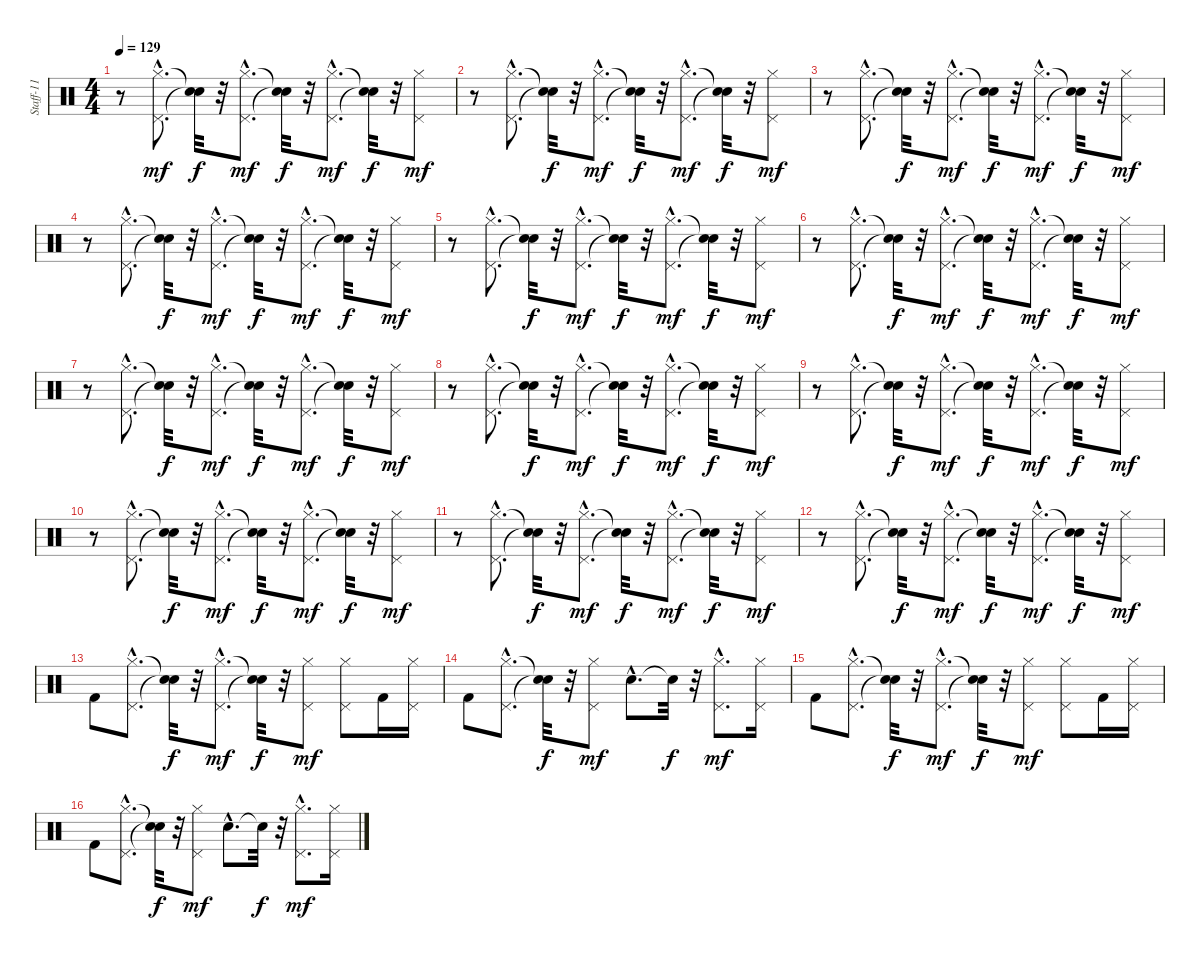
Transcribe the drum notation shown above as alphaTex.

\track ("Staff-11" "Staff-11") {instrument percussion}
\staff {score}
\articulation defaults
\ts (4 4)
\tempo 129
\clef neutral
\ks c
r.8{dy mf} ("Hi-Hat (closed)"{hac} "Pedal Hi-Hat (hit)"{hac}).8{d} ("Snare (hit)"{t} "Snare (hit)"{t}).32{dy f} r.32 ("Hi-Hat (closed)"{hac} "Pedal Hi-Hat (hit)"{hac}).8{d dy mf} ("Snare (hit)"{t} "Snare (hit)"{t}).32{dy f} r.32 ("Hi-Hat (closed)"{hac} "Pedal Hi-Hat (hit)"{hac}).8{d dy mf} ("Snare (hit)"{t} "Snare (hit)"{t}).32{dy f} r.32 ("Hi-Hat (closed)" "Pedal Hi-Hat (hit)").8{dy mf} |
r.8 ("Hi-Hat (closed)"{hac} "Pedal Hi-Hat (hit)"{hac}).8{d} ("Snare (hit)"{t} "Snare (hit)"{t}).32{dy f} r.32 ("Hi-Hat (closed)"{hac} "Pedal Hi-Hat (hit)"{hac}).8{d dy mf} ("Snare (hit)"{t} "Snare (hit)"{t}).32{dy f} r.32 ("Hi-Hat (closed)"{hac} "Pedal Hi-Hat (hit)"{hac}).8{d dy mf} ("Snare (hit)"{t} "Snare (hit)"{t}).32{dy f} r.32 ("Hi-Hat (closed)" "Pedal Hi-Hat (hit)").8{dy mf} |
r.8 ("Hi-Hat (closed)"{hac} "Pedal Hi-Hat (hit)"{hac}).8{d} ("Snare (hit)"{t} "Snare (hit)"{t}).32{dy f} r.32 ("Hi-Hat (closed)"{hac} "Pedal Hi-Hat (hit)"{hac}).8{d dy mf} ("Snare (hit)"{t} "Snare (hit)"{t}).32{dy f} r.32 ("Hi-Hat (closed)"{hac} "Pedal Hi-Hat (hit)"{hac}).8{d dy mf} ("Snare (hit)"{t} "Snare (hit)"{t}).32{dy f} r.32 ("Hi-Hat (closed)" "Pedal Hi-Hat (hit)").8{dy mf} |
r.8 ("Hi-Hat (closed)"{hac} "Pedal Hi-Hat (hit)"{hac}).8{d} ("Snare (hit)"{t} "Snare (hit)"{t}).32{dy f} r.32 ("Hi-Hat (closed)"{hac} "Pedal Hi-Hat (hit)"{hac}).8{d dy mf} ("Snare (hit)"{t} "Snare (hit)"{t}).32{dy f} r.32 ("Hi-Hat (closed)"{hac} "Pedal Hi-Hat (hit)"{hac}).8{d dy mf} ("Snare (hit)"{t} "Snare (hit)"{t}).32{dy f} r.32 ("Hi-Hat (closed)" "Pedal Hi-Hat (hit)").8{dy mf} |
r.8 ("Hi-Hat (closed)"{hac} "Pedal Hi-Hat (hit)"{hac}).8{d} ("Snare (hit)"{t} "Snare (hit)"{t}).32{dy f} r.32 ("Hi-Hat (closed)"{hac} "Pedal Hi-Hat (hit)"{hac}).8{d dy mf} ("Snare (hit)"{t} "Snare (hit)"{t}).32{dy f} r.32 ("Hi-Hat (closed)"{hac} "Pedal Hi-Hat (hit)"{hac}).8{d dy mf} ("Snare (hit)"{t} "Snare (hit)"{t}).32{dy f} r.32 ("Hi-Hat (closed)" "Pedal Hi-Hat (hit)").8{dy mf} |
r.8 ("Hi-Hat (closed)"{hac} "Pedal Hi-Hat (hit)"{hac}).8{d} ("Snare (hit)"{t} "Snare (hit)"{t}).32{dy f} r.32 ("Hi-Hat (closed)"{hac} "Pedal Hi-Hat (hit)"{hac}).8{d dy mf} ("Snare (hit)"{t} "Snare (hit)"{t}).32{dy f} r.32 ("Hi-Hat (closed)"{hac} "Pedal Hi-Hat (hit)"{hac}).8{d dy mf} ("Snare (hit)"{t} "Snare (hit)"{t}).32{dy f} r.32 ("Hi-Hat (closed)" "Pedal Hi-Hat (hit)").8{dy mf} |
r.8 ("Hi-Hat (closed)"{hac} "Pedal Hi-Hat (hit)"{hac}).8{d} ("Snare (hit)"{t} "Snare (hit)"{t}).32{dy f} r.32 ("Hi-Hat (closed)"{hac} "Pedal Hi-Hat (hit)"{hac}).8{d dy mf} ("Snare (hit)"{t} "Snare (hit)"{t}).32{dy f} r.32 ("Hi-Hat (closed)"{hac} "Pedal Hi-Hat (hit)"{hac}).8{d dy mf} ("Snare (hit)"{t} "Snare (hit)"{t}).32{dy f} r.32 ("Hi-Hat (closed)" "Pedal Hi-Hat (hit)").8{dy mf} |
r.8 ("Hi-Hat (closed)"{hac} "Pedal Hi-Hat (hit)"{hac}).8{d} ("Snare (hit)"{t} "Snare (hit)"{t}).32{dy f} r.32 ("Hi-Hat (closed)"{hac} "Pedal Hi-Hat (hit)"{hac}).8{d dy mf} ("Snare (hit)"{t} "Snare (hit)"{t}).32{dy f} r.32 ("Hi-Hat (closed)"{hac} "Pedal Hi-Hat (hit)"{hac}).8{d dy mf} ("Snare (hit)"{t} "Snare (hit)"{t}).32{dy f} r.32 ("Hi-Hat (closed)" "Pedal Hi-Hat (hit)").8{dy mf} |
r.8 ("Hi-Hat (closed)"{hac} "Pedal Hi-Hat (hit)"{hac}).8{d} ("Snare (hit)"{t} "Snare (hit)"{t}).32{dy f} r.32 ("Hi-Hat (closed)"{hac} "Pedal Hi-Hat (hit)"{hac}).8{d dy mf} ("Snare (hit)"{t} "Snare (hit)"{t}).32{dy f} r.32 ("Hi-Hat (closed)"{hac} "Pedal Hi-Hat (hit)"{hac}).8{d dy mf} ("Snare (hit)"{t} "Snare (hit)"{t}).32{dy f} r.32 ("Hi-Hat (closed)" "Pedal Hi-Hat (hit)").8{dy mf} |
r.8 ("Hi-Hat (closed)"{hac} "Pedal Hi-Hat (hit)"{hac}).8{d} ("Snare (hit)"{t} "Snare (hit)"{t}).32{dy f} r.32 ("Hi-Hat (closed)"{hac} "Pedal Hi-Hat (hit)"{hac}).8{d dy mf} ("Snare (hit)"{t} "Snare (hit)"{t}).32{dy f} r.32 ("Hi-Hat (closed)"{hac} "Pedal Hi-Hat (hit)"{hac}).8{d dy mf} ("Snare (hit)"{t} "Snare (hit)"{t}).32{dy f} r.32 ("Hi-Hat (closed)" "Pedal Hi-Hat (hit)").8{dy mf} |
r.8 ("Hi-Hat (closed)"{hac} "Pedal Hi-Hat (hit)"{hac}).8{d} ("Snare (hit)"{t} "Snare (hit)"{t}).32{dy f} r.32 ("Hi-Hat (closed)"{hac} "Pedal Hi-Hat (hit)"{hac}).8{d dy mf} ("Snare (hit)"{t} "Snare (hit)"{t}).32{dy f} r.32 ("Hi-Hat (closed)"{hac} "Pedal Hi-Hat (hit)"{hac}).8{d dy mf} ("Snare (hit)"{t} "Snare (hit)"{t}).32{dy f} r.32 ("Hi-Hat (closed)" "Pedal Hi-Hat (hit)").8{dy mf} |
r.8 ("Hi-Hat (closed)"{hac} "Pedal Hi-Hat (hit)"{hac}).8{d} ("Snare (hit)"{t} "Snare (hit)"{t}).32{dy f} r.32 ("Hi-Hat (closed)"{hac} "Pedal Hi-Hat (hit)"{hac}).8{d dy mf} ("Snare (hit)"{t} "Snare (hit)"{t}).32{dy f} r.32 ("Hi-Hat (closed)"{hac} "Pedal Hi-Hat (hit)"{hac}).8{d dy mf} ("Snare (hit)"{t} "Snare (hit)"{t}).32{dy f} r.32 ("Hi-Hat (closed)" "Pedal Hi-Hat (hit)").8{dy mf} |
"Kick (hit) 2".8 ("Hi-Hat (closed)"{hac} "Pedal Hi-Hat (hit)"{hac}).8{d} ("Snare (hit)"{t} "Snare (hit)"{t}).32{dy f} r.32 ("Hi-Hat (closed)"{hac} "Pedal Hi-Hat (hit)"{hac}).8{d dy mf} ("Snare (hit)"{t} "Snare (hit)"{t}).32{dy f} r.32 ("Hi-Hat (closed)" "Pedal Hi-Hat (hit)").8{dy mf} ("Hi-Hat (closed)" "Pedal Hi-Hat (hit)").8 "Kick (hit) 2".16 ("Hi-Hat (closed)" "Pedal Hi-Hat (hit)").16 |
"Kick (hit) 2".8 ("Hi-Hat (closed)"{hac} "Pedal Hi-Hat (hit)"{hac}).8{d} ("Snare (hit)"{t} "Snare (hit)"{t}).32{dy f} r.32 ("Hi-Hat (closed)" "Pedal Hi-Hat (hit)").8{dy mf} "Hand Clap (hit)"{hac}.8{d} "Snare (hit)"{t}.32{dy f} r.32 ("Hi-Hat (closed)"{hac} "Pedal Hi-Hat (hit)"{hac}).8{d dy mf} ("Hi-Hat (closed)" "Pedal Hi-Hat (hit)").16 |
"Kick (hit) 2".8 ("Hi-Hat (closed)"{hac} "Pedal Hi-Hat (hit)"{hac}).8{d} ("Snare (hit)"{t} "Snare (hit)"{t}).32{dy f} r.32 ("Hi-Hat (closed)"{hac} "Pedal Hi-Hat (hit)"{hac}).8{d dy mf} ("Snare (hit)"{t} "Snare (hit)"{t}).32{dy f} r.32 ("Hi-Hat (closed)" "Pedal Hi-Hat (hit)").8{dy mf} ("Hi-Hat (closed)" "Pedal Hi-Hat (hit)").8 "Kick (hit) 2".16 ("Hi-Hat (closed)" "Pedal Hi-Hat (hit)").16 |
"Kick (hit) 2".8 ("Hi-Hat (closed)"{hac} "Pedal Hi-Hat (hit)"{hac}).8{d} ("Snare (hit)"{t} "Snare (hit)"{t}).32{dy f} r.32 ("Hi-Hat (closed)" "Pedal Hi-Hat (hit)").8{dy mf} "Hand Clap (hit)"{hac}.8{d} "Snare (hit)"{t}.32{dy f} r.32 ("Hi-Hat (closed)"{hac} "Pedal Hi-Hat (hit)"{hac}).8{d dy mf} ("Hi-Hat (closed)" "Pedal Hi-Hat (hit)").16
